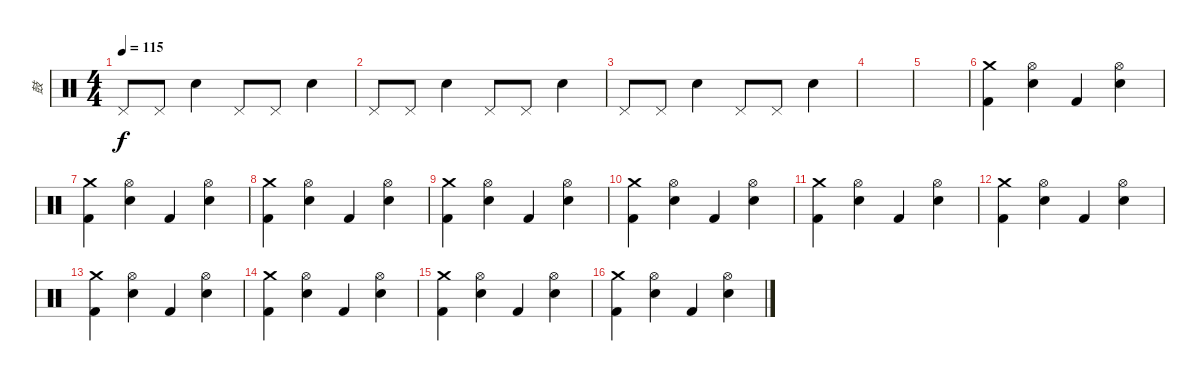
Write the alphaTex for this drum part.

\track ("鼓" "鼓") {instrument percussion}
\staff {score}
\articulation defaults
\ts (4 4)
\tempo 115
\clef neutral
\ks c "Pedal Hi-Hat (hit)".8{dy f} "Pedal Hi-Hat (hit)".8 "Snare (hit) 2".4 "Pedal Hi-Hat (hit)".8 "Pedal Hi-Hat (hit)".8 "Snare (hit) 2".4
|
"Pedal Hi-Hat (hit)".8 "Pedal Hi-Hat (hit)".8 "Snare (hit) 2".4 "Pedal Hi-Hat (hit)".8 "Pedal Hi-Hat (hit)".8 "Snare (hit) 2".4 |
"Pedal Hi-Hat (hit)".8 "Pedal Hi-Hat (hit)".8 "Snare (hit) 2".4 "Pedal Hi-Hat (hit)".8 "Pedal Hi-Hat (hit)".8 "Snare (hit) 2".4 |
|
|
("Kick (hit) 2" "Crash medium (hit)").4 ("Snare (hit) 2" "Hi-Hat (open)").4 "Kick (hit) 2".4 ("Snare (hit) 2" "Hi-Hat (open)").4 |
("Kick (hit) 2" "Crash medium (hit)").4 ("Snare (hit) 2" "Hi-Hat (open)").4 "Kick (hit) 2".4 ("Snare (hit) 2" "Hi-Hat (open)").4 |
("Kick (hit) 2" "Crash medium (hit)").4 ("Snare (hit) 2" "Hi-Hat (open)").4 "Kick (hit) 2".4 ("Snare (hit) 2" "Hi-Hat (open)").4 |
("Kick (hit) 2" "Crash medium (hit)").4 ("Snare (hit) 2" "Hi-Hat (open)").4 "Kick (hit) 2".4 ("Snare (hit) 2" "Hi-Hat (open)").4 |
("Kick (hit) 2" "Crash medium (hit)").4 ("Snare (hit) 2" "Hi-Hat (open)").4 "Kick (hit) 2".4 ("Snare (hit) 2" "Hi-Hat (open)").4 |
("Kick (hit) 2" "Crash medium (hit)").4 ("Snare (hit) 2" "Hi-Hat (open)").4 "Kick (hit) 2".4 ("Snare (hit) 2" "Hi-Hat (open)").4 |
("Kick (hit) 2" "Crash medium (hit)").4 ("Snare (hit) 2" "Hi-Hat (open)").4 "Kick (hit) 2".4 ("Snare (hit) 2" "Hi-Hat (open)").4 |
("Kick (hit) 2" "Crash medium (hit)").4 ("Snare (hit) 2" "Hi-Hat (open)").4 "Kick (hit) 2".4 ("Snare (hit) 2" "Hi-Hat (open)").4 |
("Kick (hit) 2" "Crash medium (hit)").4 ("Snare (hit) 2" "Hi-Hat (open)").4 "Kick (hit) 2".4 ("Snare (hit) 2" "Hi-Hat (open)").4 |
("Kick (hit) 2" "Crash medium (hit)").4 ("Snare (hit) 2" "Hi-Hat (open)").4 "Kick (hit) 2".4 ("Snare (hit) 2" "Hi-Hat (open)").4 |
("Kick (hit) 2" "Crash medium (hit)").4 ("Snare (hit) 2" "Hi-Hat (open)").4 "Kick (hit) 2".4 ("Snare (hit) 2" "Hi-Hat (open)").4
